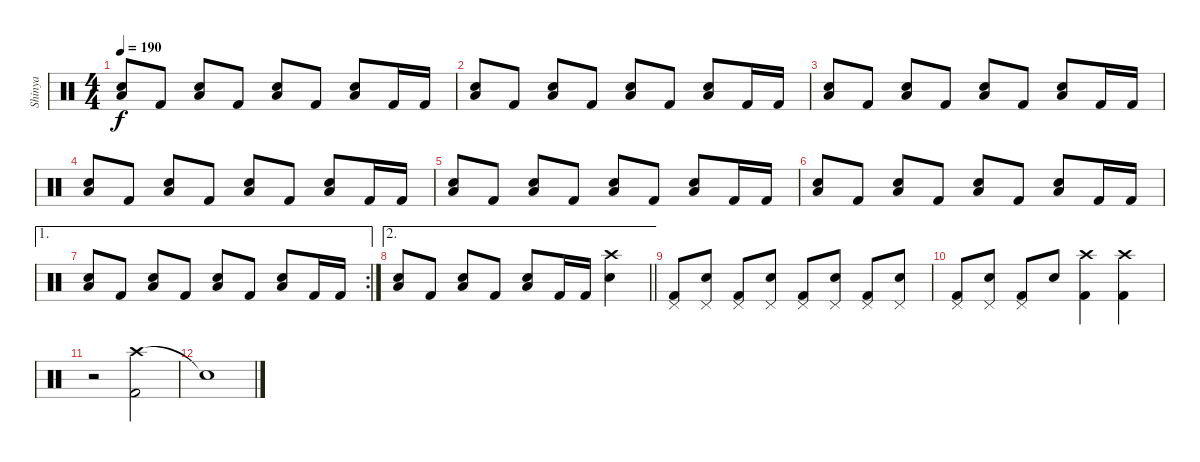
\track ("Shinya" "Shinya") {instrument percussion}
\staff {score}
\articulation defaults
\ts (4 4)
\tempo 190
\clef neutral
\ks c
("Low Floor Tom (hit)" "Electric Snare (hit)").8{dy f} "Kick (hit) 2".8 ("Low Floor Tom (hit)" "Electric Snare (hit)").8 "Kick (hit) 2".8 ("Low Floor Tom (hit)" "Electric Snare (hit)").8 "Kick (hit) 2".8 ("Low Floor Tom (hit)" "Electric Snare (hit)").8 "Kick (hit) 2".16 "Kick (hit) 2".16 |
("Low Floor Tom (hit)" "Electric Snare (hit)").8 "Kick (hit) 2".8 ("Low Floor Tom (hit)" "Electric Snare (hit)").8 "Kick (hit) 2".8 ("Low Floor Tom (hit)" "Electric Snare (hit)").8 "Kick (hit) 2".8 ("Low Floor Tom (hit)" "Electric Snare (hit)").8 "Kick (hit) 2".16 "Kick (hit) 2".16 |
("Low Floor Tom (hit)" "Electric Snare (hit)").8 "Kick (hit) 2".8 ("Low Floor Tom (hit)" "Electric Snare (hit)").8 "Kick (hit) 2".8 ("Low Floor Tom (hit)" "Electric Snare (hit)").8 "Kick (hit) 2".8 ("Low Floor Tom (hit)" "Electric Snare (hit)").8 "Kick (hit) 2".16 "Kick (hit) 2".16 |
("Low Floor Tom (hit)" "Electric Snare (hit)").8 "Kick (hit) 2".8 ("Low Floor Tom (hit)" "Electric Snare (hit)").8 "Kick (hit) 2".8 ("Low Floor Tom (hit)" "Electric Snare (hit)").8 "Kick (hit) 2".8 ("Low Floor Tom (hit)" "Electric Snare (hit)").8 "Kick (hit) 2".16 "Kick (hit) 2".16 |
("Low Floor Tom (hit)" "Electric Snare (hit)").8 "Kick (hit) 2".8 ("Low Floor Tom (hit)" "Electric Snare (hit)").8 "Kick (hit) 2".8 ("Low Floor Tom (hit)" "Electric Snare (hit)").8 "Kick (hit) 2".8 ("Low Floor Tom (hit)" "Electric Snare (hit)").8 "Kick (hit) 2".16 "Kick (hit) 2".16 |
("Low Floor Tom (hit)" "Electric Snare (hit)").8 "Kick (hit) 2".8 ("Low Floor Tom (hit)" "Electric Snare (hit)").8 "Kick (hit) 2".8 ("Low Floor Tom (hit)" "Electric Snare (hit)").8 "Kick (hit) 2".8 ("Low Floor Tom (hit)" "Electric Snare (hit)").8 "Kick (hit) 2".16 "Kick (hit) 2".16 |
\ae 1
\rc 2
("Low Floor Tom (hit)" "Electric Snare (hit)").8 "Kick (hit) 2".8 ("Low Floor Tom (hit)" "Electric Snare (hit)").8 "Kick (hit) 2".8 ("Low Floor Tom (hit)" "Electric Snare (hit)").8 "Kick (hit) 2".8 ("Low Floor Tom (hit)" "Electric Snare (hit)").8 "Kick (hit) 2".16 "Kick (hit) 2".16 |
\ae 2
\barLineRight lightlight
("Low Floor Tom (hit)" "Electric Snare (hit)").8 "Kick (hit) 2".8 ("Low Floor Tom (hit)" "Electric Snare (hit)").8 "Kick (hit) 2".8 ("Low Floor Tom (hit)" "Electric Snare (hit)").8 "Kick (hit) 2".16 "Kick (hit) 2".16 ("Crash high (hit)" "Electric Snare (hit)").4 |
("Pedal Hi-Hat (hit)" "Kick (hit) 2").8 ("Pedal Hi-Hat (hit)" "Electric Snare (hit)").8 ("Pedal Hi-Hat (hit)" "Kick (hit) 2").8 ("Pedal Hi-Hat (hit)" "Electric Snare (hit)").8 ("Pedal Hi-Hat (hit)" "Kick (hit) 2").8 ("Pedal Hi-Hat (hit)" "Electric Snare (hit)").8 ("Pedal Hi-Hat (hit)" "Kick (hit) 2").8 ("Pedal Hi-Hat (hit)" "Electric Snare (hit)").8 |
("Pedal Hi-Hat (hit)" "Kick (hit) 2").8 ("Pedal Hi-Hat (hit)" "Electric Snare (hit)").8 ("Pedal Hi-Hat (hit)" "Kick (hit) 2").8 "Electric Snare (hit)".8 ("Crash high (hit)" "Kick (hit) 2").4 ("Crash high (hit)" "Kick (hit) 2").4 |
r.2 ("Crash high (hit)" "Kick (hit) 2").2 |
"Snare (hit)"{t}.1
